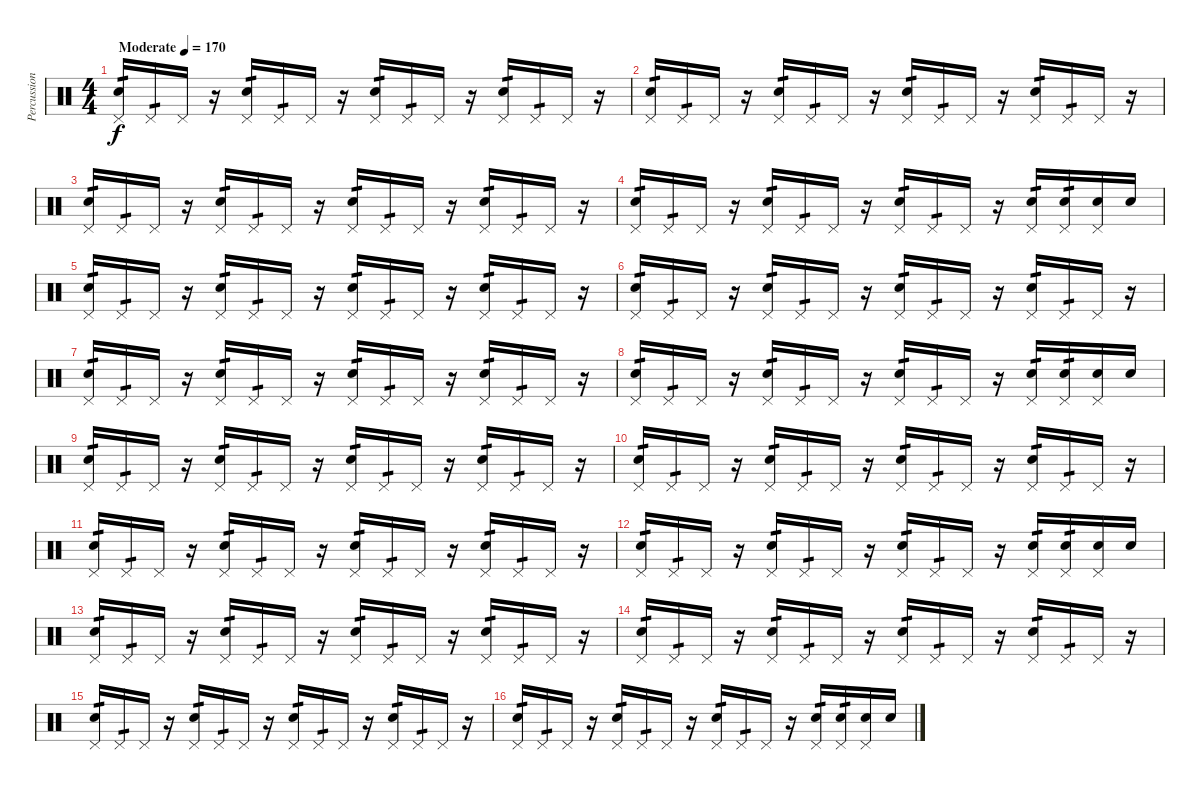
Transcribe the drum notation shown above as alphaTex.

\track ("Percussion" "Percussion") {instrument percussion}
\staff {score}
\articulation defaults
\ts (4 4)
\tempo (170 "Moderate")
\clef neutral
\ks c
("Electric Snare (hit)" "Pedal Hi-Hat (hit)").16{tp 1 dy f} "Pedal Hi-Hat (hit)".16{tp 1} "Pedal Hi-Hat (hit)".16 r.16 ("Electric Snare (hit)" "Pedal Hi-Hat (hit)").16{tp 1} "Pedal Hi-Hat (hit)".16{tp 1} "Pedal Hi-Hat (hit)".16 r.16 ("Electric Snare (hit)" "Pedal Hi-Hat (hit)").16{tp 1} "Pedal Hi-Hat (hit)".16{tp 1} "Pedal Hi-Hat (hit)".16 r.16 ("Electric Snare (hit)" "Pedal Hi-Hat (hit)").16{tp 1} "Pedal Hi-Hat (hit)".16{tp 1} "Pedal Hi-Hat (hit)".16 r.16 |
("Electric Snare (hit)" "Pedal Hi-Hat (hit)").16{tp 1} "Pedal Hi-Hat (hit)".16{tp 1} "Pedal Hi-Hat (hit)".16 r.16 ("Electric Snare (hit)" "Pedal Hi-Hat (hit)").16{tp 1} "Pedal Hi-Hat (hit)".16{tp 1} "Pedal Hi-Hat (hit)".16 r.16 ("Electric Snare (hit)" "Pedal Hi-Hat (hit)").16{tp 1} "Pedal Hi-Hat (hit)".16{tp 1} "Pedal Hi-Hat (hit)".16 r.16 ("Electric Snare (hit)" "Pedal Hi-Hat (hit)").16{tp 1} "Pedal Hi-Hat (hit)".16{tp 1} "Pedal Hi-Hat (hit)".16 r.16 |
("Electric Snare (hit)" "Pedal Hi-Hat (hit)").16{tp 1} "Pedal Hi-Hat (hit)".16{tp 1} "Pedal Hi-Hat (hit)".16 r.16 ("Electric Snare (hit)" "Pedal Hi-Hat (hit)").16{tp 1} "Pedal Hi-Hat (hit)".16{tp 1} "Pedal Hi-Hat (hit)".16 r.16 ("Electric Snare (hit)" "Pedal Hi-Hat (hit)").16{tp 1} "Pedal Hi-Hat (hit)".16{tp 1} "Pedal Hi-Hat (hit)".16 r.16 ("Electric Snare (hit)" "Pedal Hi-Hat (hit)").16{tp 1} "Pedal Hi-Hat (hit)".16{tp 1} "Pedal Hi-Hat (hit)".16 r.16 |
("Electric Snare (hit)" "Pedal Hi-Hat (hit)").16{tp 1} "Pedal Hi-Hat (hit)".16{tp 1} "Pedal Hi-Hat (hit)".16 r.16 ("Electric Snare (hit)" "Pedal Hi-Hat (hit)").16{tp 1} "Pedal Hi-Hat (hit)".16{tp 1} "Pedal Hi-Hat (hit)".16 r.16 ("Electric Snare (hit)" "Pedal Hi-Hat (hit)").16{tp 1} "Pedal Hi-Hat (hit)".16{tp 1} "Pedal Hi-Hat (hit)".16 r.16 ("Electric Snare (hit)" "Pedal Hi-Hat (hit)").16{tp 1} ("Electric Snare (hit)" "Pedal Hi-Hat (hit)").16{tp 1} ("Electric Snare (hit)" "Pedal Hi-Hat (hit)").16 "Electric Snare (hit)".16 |
("Electric Snare (hit)" "Pedal Hi-Hat (hit)").16{tp 1} "Pedal Hi-Hat (hit)".16{tp 1} "Pedal Hi-Hat (hit)".16 r.16 ("Electric Snare (hit)" "Pedal Hi-Hat (hit)").16{tp 1} "Pedal Hi-Hat (hit)".16{tp 1} "Pedal Hi-Hat (hit)".16 r.16 ("Electric Snare (hit)" "Pedal Hi-Hat (hit)").16{tp 1} "Pedal Hi-Hat (hit)".16{tp 1} "Pedal Hi-Hat (hit)".16 r.16 ("Electric Snare (hit)" "Pedal Hi-Hat (hit)").16{tp 1} "Pedal Hi-Hat (hit)".16{tp 1} "Pedal Hi-Hat (hit)".16 r.16 |
("Electric Snare (hit)" "Pedal Hi-Hat (hit)").16{tp 1} "Pedal Hi-Hat (hit)".16{tp 1} "Pedal Hi-Hat (hit)".16 r.16 ("Electric Snare (hit)" "Pedal Hi-Hat (hit)").16{tp 1} "Pedal Hi-Hat (hit)".16{tp 1} "Pedal Hi-Hat (hit)".16 r.16 ("Electric Snare (hit)" "Pedal Hi-Hat (hit)").16{tp 1} "Pedal Hi-Hat (hit)".16{tp 1} "Pedal Hi-Hat (hit)".16 r.16 ("Electric Snare (hit)" "Pedal Hi-Hat (hit)").16{tp 1} "Pedal Hi-Hat (hit)".16{tp 1} "Pedal Hi-Hat (hit)".16 r.16 |
("Electric Snare (hit)" "Pedal Hi-Hat (hit)").16{tp 1} "Pedal Hi-Hat (hit)".16{tp 1} "Pedal Hi-Hat (hit)".16 r.16 ("Electric Snare (hit)" "Pedal Hi-Hat (hit)").16{tp 1} "Pedal Hi-Hat (hit)".16{tp 1} "Pedal Hi-Hat (hit)".16 r.16 ("Electric Snare (hit)" "Pedal Hi-Hat (hit)").16{tp 1} "Pedal Hi-Hat (hit)".16{tp 1} "Pedal Hi-Hat (hit)".16 r.16 ("Electric Snare (hit)" "Pedal Hi-Hat (hit)").16{tp 1} "Pedal Hi-Hat (hit)".16{tp 1} "Pedal Hi-Hat (hit)".16 r.16 |
("Electric Snare (hit)" "Pedal Hi-Hat (hit)").16{tp 1} "Pedal Hi-Hat (hit)".16{tp 1} "Pedal Hi-Hat (hit)".16 r.16 ("Electric Snare (hit)" "Pedal Hi-Hat (hit)").16{tp 1} "Pedal Hi-Hat (hit)".16{tp 1} "Pedal Hi-Hat (hit)".16 r.16 ("Electric Snare (hit)" "Pedal Hi-Hat (hit)").16{tp 1} "Pedal Hi-Hat (hit)".16{tp 1} "Pedal Hi-Hat (hit)".16 r.16 ("Electric Snare (hit)" "Pedal Hi-Hat (hit)").16{tp 1} ("Electric Snare (hit)" "Pedal Hi-Hat (hit)").16{tp 1} ("Electric Snare (hit)" "Pedal Hi-Hat (hit)").16 "Electric Snare (hit)".16 |
("Electric Snare (hit)" "Pedal Hi-Hat (hit)").16{tp 1} "Pedal Hi-Hat (hit)".16{tp 1} "Pedal Hi-Hat (hit)".16 r.16 ("Electric Snare (hit)" "Pedal Hi-Hat (hit)").16{tp 1} "Pedal Hi-Hat (hit)".16{tp 1} "Pedal Hi-Hat (hit)".16 r.16 ("Electric Snare (hit)" "Pedal Hi-Hat (hit)").16{tp 1} "Pedal Hi-Hat (hit)".16{tp 1} "Pedal Hi-Hat (hit)".16 r.16 ("Electric Snare (hit)" "Pedal Hi-Hat (hit)").16{tp 1} "Pedal Hi-Hat (hit)".16{tp 1} "Pedal Hi-Hat (hit)".16 r.16 |
("Electric Snare (hit)" "Pedal Hi-Hat (hit)").16{tp 1} "Pedal Hi-Hat (hit)".16{tp 1} "Pedal Hi-Hat (hit)".16 r.16 ("Electric Snare (hit)" "Pedal Hi-Hat (hit)").16{tp 1} "Pedal Hi-Hat (hit)".16{tp 1} "Pedal Hi-Hat (hit)".16 r.16 ("Electric Snare (hit)" "Pedal Hi-Hat (hit)").16{tp 1} "Pedal Hi-Hat (hit)".16{tp 1} "Pedal Hi-Hat (hit)".16 r.16 ("Electric Snare (hit)" "Pedal Hi-Hat (hit)").16{tp 1} "Pedal Hi-Hat (hit)".16{tp 1} "Pedal Hi-Hat (hit)".16 r.16 |
("Electric Snare (hit)" "Pedal Hi-Hat (hit)").16{tp 1} "Pedal Hi-Hat (hit)".16{tp 1} "Pedal Hi-Hat (hit)".16 r.16 ("Electric Snare (hit)" "Pedal Hi-Hat (hit)").16{tp 1} "Pedal Hi-Hat (hit)".16{tp 1} "Pedal Hi-Hat (hit)".16 r.16 ("Electric Snare (hit)" "Pedal Hi-Hat (hit)").16{tp 1} "Pedal Hi-Hat (hit)".16{tp 1} "Pedal Hi-Hat (hit)".16 r.16 ("Electric Snare (hit)" "Pedal Hi-Hat (hit)").16{tp 1} "Pedal Hi-Hat (hit)".16{tp 1} "Pedal Hi-Hat (hit)".16 r.16 |
("Electric Snare (hit)" "Pedal Hi-Hat (hit)").16{tp 1} "Pedal Hi-Hat (hit)".16{tp 1} "Pedal Hi-Hat (hit)".16 r.16 ("Electric Snare (hit)" "Pedal Hi-Hat (hit)").16{tp 1} "Pedal Hi-Hat (hit)".16{tp 1} "Pedal Hi-Hat (hit)".16 r.16 ("Electric Snare (hit)" "Pedal Hi-Hat (hit)").16{tp 1} "Pedal Hi-Hat (hit)".16{tp 1} "Pedal Hi-Hat (hit)".16 r.16 ("Electric Snare (hit)" "Pedal Hi-Hat (hit)").16{tp 1} ("Electric Snare (hit)" "Pedal Hi-Hat (hit)").16{tp 1} ("Electric Snare (hit)" "Pedal Hi-Hat (hit)").16 "Electric Snare (hit)".16 |
("Electric Snare (hit)" "Pedal Hi-Hat (hit)").16{tp 1} "Pedal Hi-Hat (hit)".16{tp 1} "Pedal Hi-Hat (hit)".16 r.16 ("Electric Snare (hit)" "Pedal Hi-Hat (hit)").16{tp 1} "Pedal Hi-Hat (hit)".16{tp 1} "Pedal Hi-Hat (hit)".16 r.16 ("Electric Snare (hit)" "Pedal Hi-Hat (hit)").16{tp 1} "Pedal Hi-Hat (hit)".16{tp 1} "Pedal Hi-Hat (hit)".16 r.16 ("Electric Snare (hit)" "Pedal Hi-Hat (hit)").16{tp 1} "Pedal Hi-Hat (hit)".16{tp 1} "Pedal Hi-Hat (hit)".16 r.16 |
("Electric Snare (hit)" "Pedal Hi-Hat (hit)").16{tp 1} "Pedal Hi-Hat (hit)".16{tp 1} "Pedal Hi-Hat (hit)".16 r.16 ("Electric Snare (hit)" "Pedal Hi-Hat (hit)").16{tp 1} "Pedal Hi-Hat (hit)".16{tp 1} "Pedal Hi-Hat (hit)".16 r.16 ("Electric Snare (hit)" "Pedal Hi-Hat (hit)").16{tp 1} "Pedal Hi-Hat (hit)".16{tp 1} "Pedal Hi-Hat (hit)".16 r.16 ("Electric Snare (hit)" "Pedal Hi-Hat (hit)").16{tp 1} "Pedal Hi-Hat (hit)".16{tp 1} "Pedal Hi-Hat (hit)".16 r.16 |
("Electric Snare (hit)" "Pedal Hi-Hat (hit)").16{tp 1} "Pedal Hi-Hat (hit)".16{tp 1} "Pedal Hi-Hat (hit)".16 r.16 ("Electric Snare (hit)" "Pedal Hi-Hat (hit)").16{tp 1} "Pedal Hi-Hat (hit)".16{tp 1} "Pedal Hi-Hat (hit)".16 r.16 ("Electric Snare (hit)" "Pedal Hi-Hat (hit)").16{tp 1} "Pedal Hi-Hat (hit)".16{tp 1} "Pedal Hi-Hat (hit)".16 r.16 ("Electric Snare (hit)" "Pedal Hi-Hat (hit)").16{tp 1} "Pedal Hi-Hat (hit)".16{tp 1} "Pedal Hi-Hat (hit)".16 r.16 |
("Electric Snare (hit)" "Pedal Hi-Hat (hit)").16{tp 1} "Pedal Hi-Hat (hit)".16{tp 1} "Pedal Hi-Hat (hit)".16 r.16 ("Electric Snare (hit)" "Pedal Hi-Hat (hit)").16{tp 1} "Pedal Hi-Hat (hit)".16{tp 1} "Pedal Hi-Hat (hit)".16 r.16 ("Electric Snare (hit)" "Pedal Hi-Hat (hit)").16{tp 1} "Pedal Hi-Hat (hit)".16{tp 1} "Pedal Hi-Hat (hit)".16 r.16 ("Electric Snare (hit)" "Pedal Hi-Hat (hit)").16{tp 1} ("Electric Snare (hit)" "Pedal Hi-Hat (hit)").16{tp 1} ("Electric Snare (hit)" "Pedal Hi-Hat (hit)").16 "Electric Snare (hit)".16
